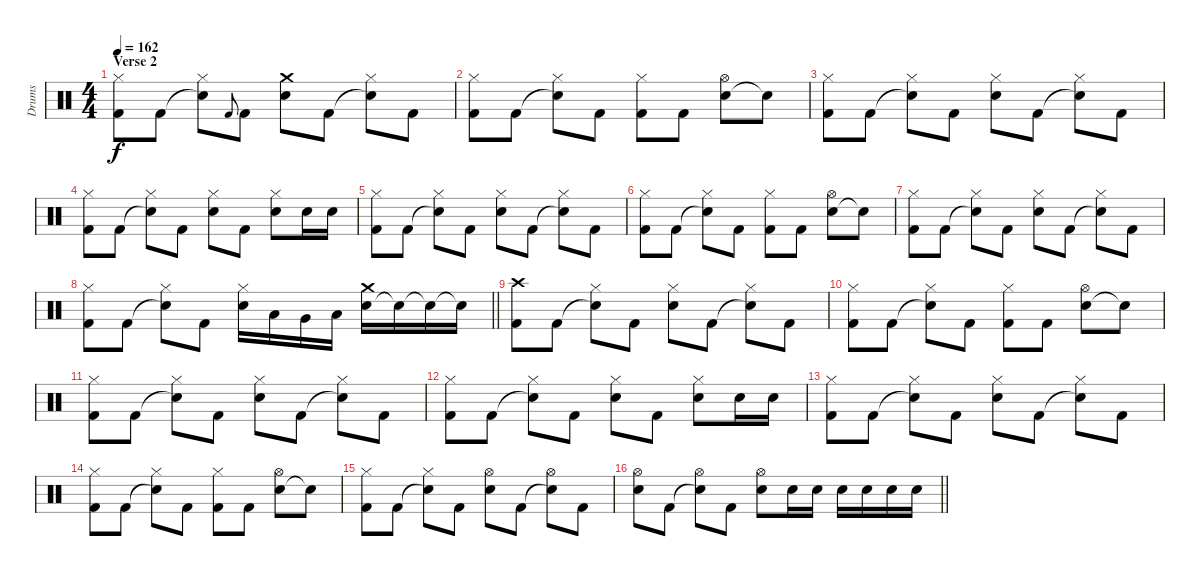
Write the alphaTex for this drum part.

\track ("Drums" "Drums") {instrument percussion}
\staff {score}
\articulation defaults
\ts (4 4)
\section ("" "Verse 2")
\tempo 162
\clef neutral
\ks c
("Kick (hit) 2" "Hi-Hat (closed)").8{dy f} "Kick (hit) 2".8 ("Snare (hit)"{t} "Hi-Hat (closed)").8 "Kick (hit) 2".8{gr onbeat} "Kick (hit) 2".8 ("Electric Snare (hit)" "Crash medium (hit)").8 "Kick (hit) 2".8 ("Snare (hit)"{t} "Hi-Hat (closed)").8 "Kick (hit) 2".8 |
("Kick (hit) 2" "Hi-Hat (closed)").8 "Kick (hit) 2".8 ("Snare (hit)"{t} "Hi-Hat (closed)").8 "Kick (hit) 2".8 ("Kick (hit) 2" "Hi-Hat (closed)").8 "Kick (hit) 2".8 ("Electric Snare (hit)" "Hi-Hat (open)").8 "Snare (hit)"{t}.8 |
("Kick (hit) 2" "Hi-Hat (closed)").8 "Kick (hit) 2".8 ("Snare (hit)"{t} "Hi-Hat (closed)").8 "Kick (hit) 2".8 ("Electric Snare (hit)" "Hi-Hat (closed)").8 "Kick (hit) 2".8 ("Snare (hit)"{t} "Hi-Hat (closed)").8 "Kick (hit) 2".8 |
("Kick (hit) 2" "Hi-Hat (closed)").8 "Kick (hit) 2".8 ("Snare (hit)"{t} "Hi-Hat (closed)").8 "Kick (hit) 2".8 ("Electric Snare (hit)" "Hi-Hat (closed)").8 "Kick (hit) 2".8 ("Electric Snare (hit)" "Hi-Hat (closed)").8 "Electric Snare (hit)".16 "Electric Snare (hit)".16 |
("Kick (hit) 2" "Hi-Hat (closed)").8 "Kick (hit) 2".8 ("Snare (hit)"{t} "Hi-Hat (closed)").8 "Kick (hit) 2".8 ("Electric Snare (hit)" "Hi-Hat (closed)").8 "Kick (hit) 2".8 ("Snare (hit)"{t} "Hi-Hat (closed)").8 "Kick (hit) 2".8 |
("Kick (hit) 2" "Hi-Hat (closed)").8 "Kick (hit) 2".8 ("Snare (hit)"{t} "Hi-Hat (closed)").8 "Kick (hit) 2".8 ("Kick (hit) 2" "Hi-Hat (closed)").8 "Kick (hit) 2".8 ("Electric Snare (hit)" "Hi-Hat (open)").8 "Snare (hit)"{t}.8 |
("Kick (hit) 2" "Hi-Hat (closed)").8 "Kick (hit) 2".8 ("Snare (hit)"{t} "Hi-Hat (closed)").8 "Kick (hit) 2".8 ("Electric Snare (hit)" "Hi-Hat (closed)").8 "Kick (hit) 2".8 ("Snare (hit)"{t} "Hi-Hat (closed)").8 "Kick (hit) 2".8 |
\barLineRight lightlight
("Kick (hit) 2" "Hi-Hat (closed)").8 "Kick (hit) 2".8 ("Snare (hit)"{t} "Hi-Hat (closed)").8 "Kick (hit) 2".8 ("Electric Snare (hit)" "Hi-Hat (closed)").16 "Low Tom (hit)".16 "Very Low Tom (hit)".16 "Low Floor Tom (hit)".16 ("Electric Snare (hit)" "Crash medium (hit)").16 "Snare (hit)"{t}.16 "Electric Snare (hit)"{t}.16 "Snare (hit)"{t}.16 |
("Kick (hit) 2" "Crash high (hit)").8 "Kick (hit) 2".8 ("Snare (hit)"{t} "Hi-Hat (closed)").8 "Kick (hit) 2".8 ("Electric Snare (hit)" "Hi-Hat (closed)").8 "Kick (hit) 2".8 ("Snare (hit)"{t} "Hi-Hat (closed)").8 "Kick (hit) 2".8 |
("Kick (hit) 2" "Hi-Hat (closed)").8 "Kick (hit) 2".8 ("Snare (hit)"{t} "Hi-Hat (closed)").8 "Kick (hit) 2".8 ("Kick (hit) 2" "Hi-Hat (closed)").8 "Kick (hit) 2".8 ("Electric Snare (hit)" "Hi-Hat (open)").8 "Snare (hit)"{t}.8 |
("Kick (hit) 2" "Hi-Hat (closed)").8 "Kick (hit) 2".8 ("Snare (hit)"{t} "Hi-Hat (closed)").8 "Kick (hit) 2".8 ("Electric Snare (hit)" "Hi-Hat (closed)").8 "Kick (hit) 2".8 ("Snare (hit)"{t} "Hi-Hat (closed)").8 "Kick (hit) 2".8 |
("Kick (hit) 2" "Hi-Hat (closed)").8 "Kick (hit) 2".8 ("Snare (hit)"{t} "Hi-Hat (closed)").8 "Kick (hit) 2".8 ("Electric Snare (hit)" "Hi-Hat (closed)").8 "Kick (hit) 2".8 ("Electric Snare (hit)" "Hi-Hat (closed)").8 "Electric Snare (hit)".16 "Electric Snare (hit)".16 |
("Kick (hit) 2" "Hi-Hat (closed)").8 "Kick (hit) 2".8 ("Snare (hit)"{t} "Hi-Hat (closed)").8 "Kick (hit) 2".8 ("Electric Snare (hit)" "Hi-Hat (closed)").8 "Kick (hit) 2".8 ("Snare (hit)"{t} "Hi-Hat (closed)").8 "Kick (hit) 2".8 |
("Kick (hit) 2" "Hi-Hat (closed)").8 "Kick (hit) 2".8 ("Snare (hit)"{t} "Hi-Hat (closed)").8 "Kick (hit) 2".8 ("Kick (hit) 2" "Hi-Hat (closed)").8 "Kick (hit) 2".8 ("Electric Snare (hit)" "Hi-Hat (open)").8 "Snare (hit)"{t}.8 |
("Kick (hit) 2" "Hi-Hat (closed)").8 "Kick (hit) 2".8 ("Snare (hit)"{t} "Hi-Hat (closed)").8 "Kick (hit) 2".8 ("Electric Snare (hit)" "Hi-Hat (open)").8 "Kick (hit) 2".8 ("Snare (hit)"{t} "Hi-Hat (open)").8 "Kick (hit) 2".8 |
\barLineRight lightlight
("Electric Snare (hit)" "Hi-Hat (open)").8 "Kick (hit) 2".8 ("Snare (hit)"{t} "Hi-Hat (open)").8 "Kick (hit) 2".8 ("Electric Snare (hit)" "Hi-Hat (open)").8 "Electric Snare (hit)".16 "Electric Snare (hit)".16 "Electric Snare (hit)".16 "Electric Snare (hit)".16 "Electric Snare (hit)".16 "Electric Snare (hit)".16
